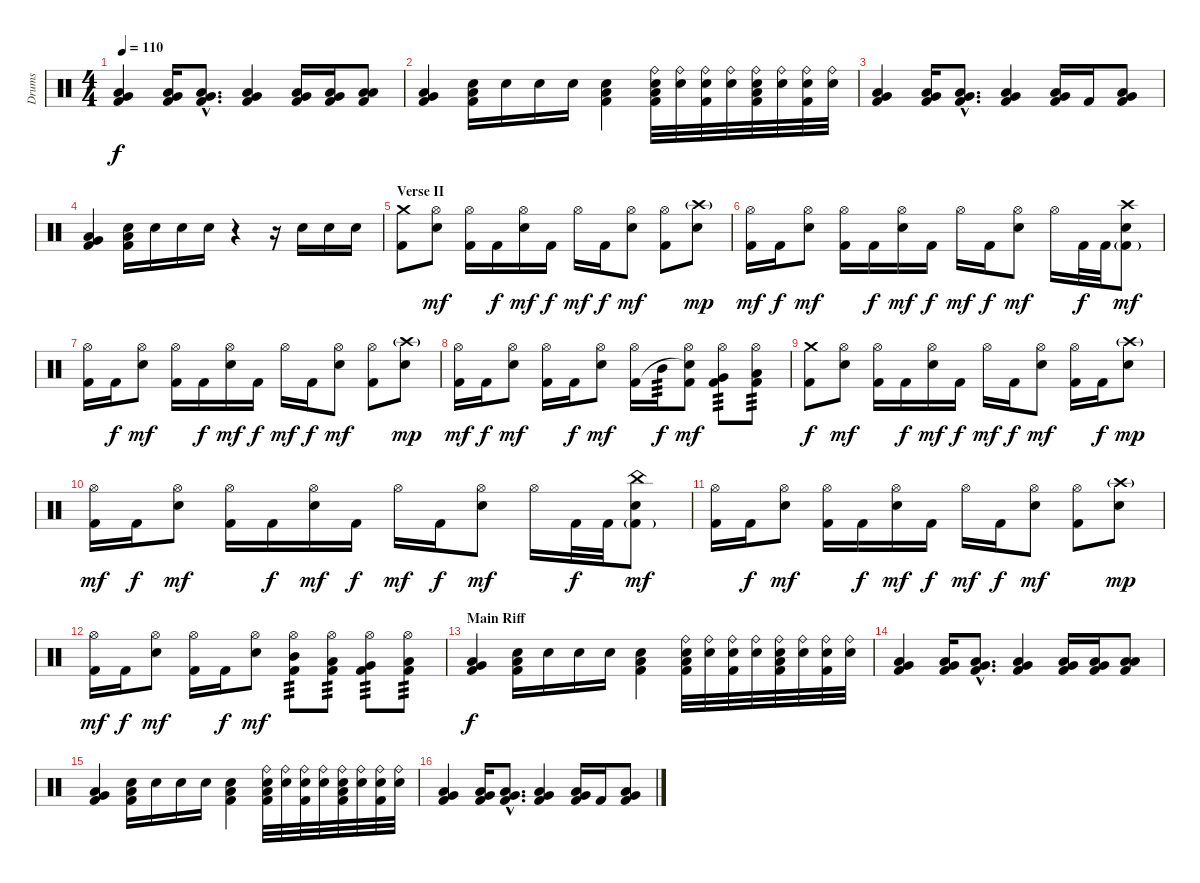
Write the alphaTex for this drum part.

\track ("Drums" "Drums") {instrument percussion}
\staff {score}
\articulation defaults
\ts (4 4)
\tempo 110
\clef neutral
\ks c
("Very Low Tom (hit)" "Low Floor Tom (hit)" "Kick (hit) 2").4{dy f} ("Very Low Tom (hit)" "Low Floor Tom (hit)" "Kick (hit) 2").16 ("Very Low Tom (hit)"{hac} "Low Floor Tom (hit)"{hac} "Kick (hit) 2"{hac}).8{d} ("Very Low Tom (hit)" "Low Floor Tom (hit)" "Kick (hit) 2").4 ("Very Low Tom (hit)" "Low Floor Tom (hit)" "Kick (hit) 2").16 ("Very Low Tom (hit)" "Low Floor Tom (hit)" "Kick (hit) 2").16 ("Low Tom (hit)" "Low Floor Tom (hit)" "Kick (hit) 2").8 |
("Very Low Tom (hit)" "Low Floor Tom (hit)" "Kick (hit) 2").4 ("Low Floor Tom (hit)" "Electric Snare (hit)" "Kick (hit) 2").16 "Electric Snare (hit)".16 "Electric Snare (hit)".16 "Electric Snare (hit)".16 ("Low Floor Tom (hit)" "Electric Snare (hit)" "Kick (hit) 2").4 ("Ride (bell)" "Low Floor Tom (hit)" "Electric Snare (hit)" "Kick (hit) 2").32 ("Ride (bell)" "Electric Snare (hit)").32 ("Ride (bell)" "Electric Snare (hit)" "Kick (hit) 2").32 ("Ride (bell)" "Electric Snare (hit)").32 ("Ride (bell)" "Low Floor Tom (hit)" "Electric Snare (hit)" "Kick (hit) 2").32 ("Ride (bell)" "Electric Snare (hit)").32 ("Ride (bell)" "Electric Snare (hit)" "Kick (hit) 2").32 ("Ride (bell)" "Electric Snare (hit)").32 |
("Very Low Tom (hit)" "Low Floor Tom (hit)" "Kick (hit) 2").4 ("Very Low Tom (hit)" "Low Floor Tom (hit)" "Kick (hit) 2").16 ("Very Low Tom (hit)"{hac} "Low Floor Tom (hit)"{hac} "Kick (hit) 2"{hac}).8{d} ("Very Low Tom (hit)" "Low Floor Tom (hit)" "Kick (hit) 2").4 ("Very Low Tom (hit)" "Low Floor Tom (hit)" "Kick (hit) 2").16 "Kick (hit) 2".16 ("Very Low Tom (hit)" "Low Floor Tom (hit)" "Kick (hit) 2").8 |
("Very Low Tom (hit)" "Low Floor Tom (hit)" "Kick (hit) 2").4 ("Low Floor Tom (hit)" "Electric Snare (hit)" "Kick (hit) 2").16 "Electric Snare (hit)".16 "Electric Snare (hit)".16 "Electric Snare (hit)".16 r.4 r.16 "Electric Snare (hit)".16 "Electric Snare (hit)".16 "Electric Snare (hit)".16 |
\section ("" "Verse II")
("Crash medium (hit)" "Kick (hit) 2").8 ("Hi-Hat (open)" "Electric Snare (hit)").8{dy mf} ("Hi-Hat (open)" "Kick (hit) 2").16 "Kick (hit) 2".16{dy f} ("Hi-Hat (open)" "Electric Snare (hit)").16{dy mf} "Kick (hit) 2".16{dy f} "Hi-Hat (open)".16{dy mf} "Kick (hit) 2".16{dy f} ("Hi-Hat (open)" "Electric Snare (hit)").8{dy mf} ("Hi-Hat (open)" "Kick (hit) 2").8 ("Crash high (hit)"{g} "Electric Snare (hit)").8{dy mp} |
("Hi-Hat (open)" "Kick (hit) 2").16{dy mf} "Kick (hit) 2".16{dy f} ("Hi-Hat (open)" "Electric Snare (hit)").8{dy mf} ("Hi-Hat (open)" "Kick (hit) 2").16 "Kick (hit) 2".16{dy f} ("Hi-Hat (open)" "Electric Snare (hit)").16{dy mf} "Kick (hit) 2".16{dy f} "Hi-Hat (open)".16{dy mf} "Kick (hit) 2".16{dy f} ("Hi-Hat (open)" "Electric Snare (hit)").8{dy mf} "Hi-Hat (open)".16 "Kick (hit) 2".32{dy f} "Kick (hit) 2".32 ("Crash high (hit)" "Electric Snare (hit)" "Kick (hit) 2"{g}).8{dy mf} |
("Hi-Hat (open)" "Kick (hit) 2").16 "Kick (hit) 2".16{dy f} ("Hi-Hat (open)" "Electric Snare (hit)").8{dy mf} ("Hi-Hat (open)" "Kick (hit) 2").16 "Kick (hit) 2".16{dy f} ("Hi-Hat (open)" "Electric Snare (hit)").16{dy mf} "Kick (hit) 2".16{dy f} "Hi-Hat (open)".16{dy mf} "Kick (hit) 2".16{dy f} ("Hi-Hat (open)" "Electric Snare (hit)").8{dy mf} ("Hi-Hat (open)" "Kick (hit) 2").8 ("Crash high (hit)"{g} "Electric Snare (hit)").8{dy mp} |
("Hi-Hat (open)" "Kick (hit) 2").16{dy mf} "Kick (hit) 2".16{dy f} ("Hi-Hat (open)" "Electric Snare (hit)").8{dy mf} ("Hi-Hat (open)" "Kick (hit) 2").16 "Kick (hit) 2".16{dy f} ("Hi-Hat (open)" "Electric Snare (hit)").8{dy mf} ("Hi-Hat (open)" "Kick (hit) 2").16 "Mid Tom (hit)".16{tp 3 dy f} ("Hi-Hat (open)" "Snare (hit)"{t} "Kick (hit) 2").8{dy mf} ("Hi-Hat (open)" "Very Low Tom (hit)" "Kick (hit) 2").8{tp 3} ("Hi-Hat (open)" "Low Floor Tom (hit)" "Kick (hit) 2").8{tp 3} |
("Crash medium (hit)" "Kick (hit) 2").8{dy f} ("Hi-Hat (open)" "Electric Snare (hit)").8{dy mf} ("Hi-Hat (open)" "Kick (hit) 2").16 "Kick (hit) 2".16{dy f} ("Hi-Hat (open)" "Electric Snare (hit)").16{dy mf} "Kick (hit) 2".16{dy f} "Hi-Hat (open)".16{dy mf} "Kick (hit) 2".16{dy f} ("Hi-Hat (open)" "Electric Snare (hit)").8{dy mf} ("Hi-Hat (open)" "Kick (hit) 2").16 "Kick (hit) 2".16{dy f} ("Crash high (hit)"{g} "Electric Snare (hit)").8{dy mp} |
("Hi-Hat (open)" "Kick (hit) 2").16{dy mf} "Kick (hit) 2".16{dy f} ("Hi-Hat (open)" "Electric Snare (hit)").8{dy mf} ("Hi-Hat (open)" "Kick (hit) 2").16 "Kick (hit) 2".16{dy f} ("Hi-Hat (open)" "Electric Snare (hit)").16{dy mf} "Kick (hit) 2".16{dy f} "Hi-Hat (open)".16{dy mf} "Kick (hit) 2".16{dy f} ("Hi-Hat (open)" "Electric Snare (hit)").8{dy mf} "Hi-Hat (open)".16 "Kick (hit) 2".32{dy f} "Kick (hit) 2".32 ("China (hit)" "Electric Snare (hit)" "Kick (hit) 2"{g}).8{dy mf} |
("Hi-Hat (open)" "Kick (hit) 2").16 "Kick (hit) 2".16{dy f} ("Hi-Hat (open)" "Electric Snare (hit)").8{dy mf} ("Hi-Hat (open)" "Kick (hit) 2").16 "Kick (hit) 2".16{dy f} ("Hi-Hat (open)" "Electric Snare (hit)").16{dy mf} "Kick (hit) 2".16{dy f} "Hi-Hat (open)".16{dy mf} "Kick (hit) 2".16{dy f} ("Hi-Hat (open)" "Electric Snare (hit)").8{dy mf} ("Hi-Hat (open)" "Kick (hit) 2").8 ("Crash high (hit)"{g} "Electric Snare (hit)").8{dy mp} |
("Hi-Hat (open)" "Kick (hit) 2").16{dy mf} "Kick (hit) 2".16{dy f} ("Hi-Hat (open)" "Electric Snare (hit)").8{dy mf} ("Hi-Hat (open)" "Kick (hit) 2").16 "Kick (hit) 2".16{dy f} ("Hi-Hat (open)" "Electric Snare (hit)").8{dy mf} ("Hi-Hat (open)" "Mid Tom (hit)" "Kick (hit) 2").8{tp 3} ("Hi-Hat (open)" "Low Tom (hit)" "Kick (hit) 2").8{tp 3} ("Hi-Hat (open)" "Very Low Tom (hit)" "Kick (hit) 2").8{tp 3} ("Hi-Hat (open)" "Low Floor Tom (hit)" "Kick (hit) 2").8{tp 3} |
\section ("" "Main Riff")
("Very Low Tom (hit)" "Low Floor Tom (hit)" "Kick (hit) 2").4{dy f} ("Low Floor Tom (hit)" "Electric Snare (hit)" "Kick (hit) 2").16 "Electric Snare (hit)".16 "Electric Snare (hit)".16 "Electric Snare (hit)".16 ("Low Floor Tom (hit)" "Electric Snare (hit)" "Kick (hit) 2").4 ("Ride (bell)" "Low Floor Tom (hit)" "Electric Snare (hit)" "Kick (hit) 2").32 ("Ride (bell)" "Electric Snare (hit)").32 ("Ride (bell)" "Electric Snare (hit)" "Kick (hit) 2").32 ("Ride (bell)" "Electric Snare (hit)").32 ("Ride (bell)" "Low Floor Tom (hit)" "Electric Snare (hit)" "Kick (hit) 2").32 ("Ride (bell)" "Electric Snare (hit)").32 ("Ride (bell)" "Electric Snare (hit)" "Kick (hit) 2").32 ("Ride (bell)" "Electric Snare (hit)").32 |
("Very Low Tom (hit)" "Low Floor Tom (hit)" "Kick (hit) 2").4 ("Very Low Tom (hit)" "Low Floor Tom (hit)" "Kick (hit) 2").16 ("Very Low Tom (hit)"{hac} "Low Floor Tom (hit)"{hac} "Kick (hit) 2"{hac}).8{d} ("Very Low Tom (hit)" "Low Floor Tom (hit)" "Kick (hit) 2").4 ("Very Low Tom (hit)" "Low Floor Tom (hit)" "Kick (hit) 2").16 ("Very Low Tom (hit)" "Low Floor Tom (hit)" "Kick (hit) 2").16 ("Low Tom (hit)" "Low Floor Tom (hit)" "Kick (hit) 2").8 |
("Very Low Tom (hit)" "Low Floor Tom (hit)" "Kick (hit) 2").4 ("Low Floor Tom (hit)" "Electric Snare (hit)" "Kick (hit) 2").16 "Electric Snare (hit)".16 "Electric Snare (hit)".16 "Electric Snare (hit)".16 ("Low Floor Tom (hit)" "Electric Snare (hit)" "Kick (hit) 2").4 ("Ride (bell)" "Low Floor Tom (hit)" "Electric Snare (hit)" "Kick (hit) 2").32 ("Ride (bell)" "Electric Snare (hit)").32 ("Ride (bell)" "Electric Snare (hit)" "Kick (hit) 2").32 ("Ride (bell)" "Electric Snare (hit)").32 ("Ride (bell)" "Low Floor Tom (hit)" "Electric Snare (hit)" "Kick (hit) 2").32 ("Ride (bell)" "Electric Snare (hit)").32 ("Ride (bell)" "Electric Snare (hit)" "Kick (hit) 2").32 ("Ride (bell)" "Electric Snare (hit)").32 |
("Very Low Tom (hit)" "Low Floor Tom (hit)" "Kick (hit) 2").4 ("Very Low Tom (hit)" "Low Floor Tom (hit)" "Kick (hit) 2").16 ("Very Low Tom (hit)"{hac} "Low Floor Tom (hit)"{hac} "Kick (hit) 2"{hac}).8{d} ("Very Low Tom (hit)" "Low Floor Tom (hit)" "Kick (hit) 2").4 ("Very Low Tom (hit)" "Low Floor Tom (hit)" "Kick (hit) 2").16 "Kick (hit) 2".16 ("Very Low Tom (hit)" "Low Floor Tom (hit)" "Kick (hit) 2").8
